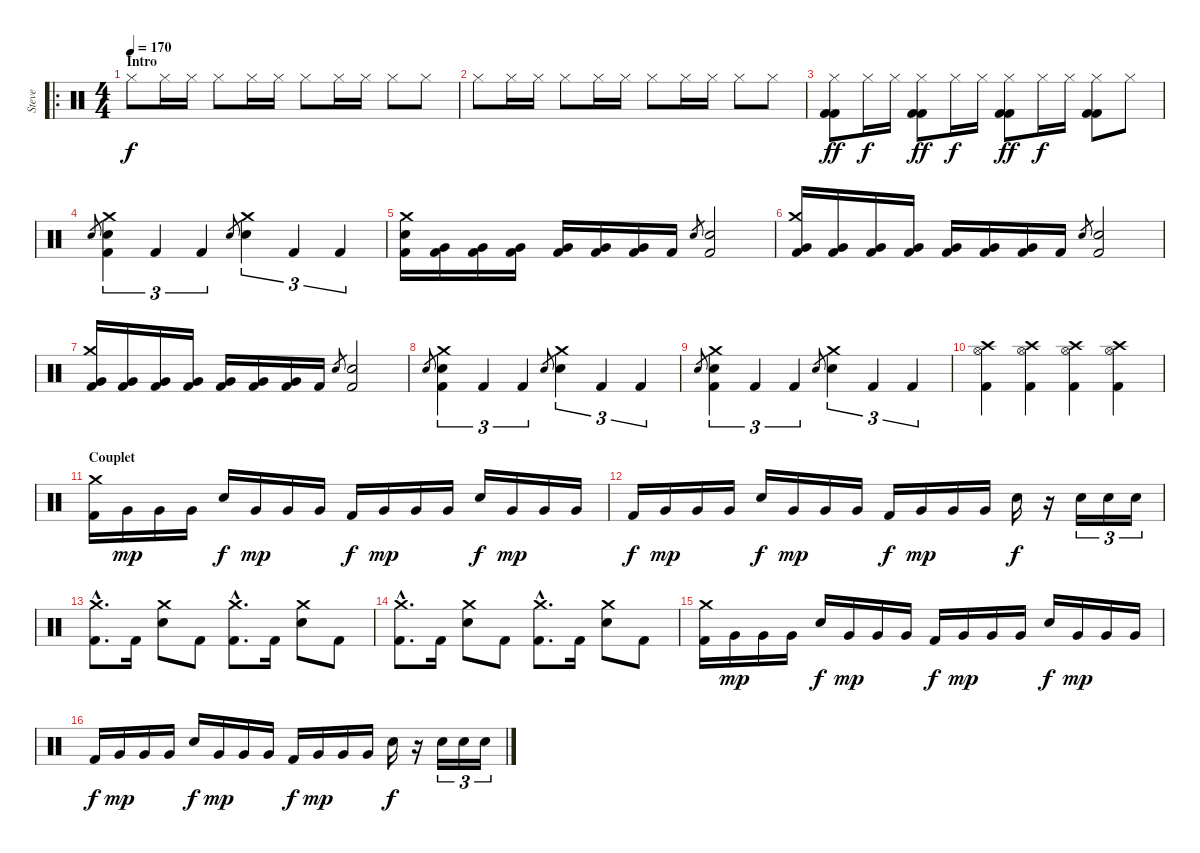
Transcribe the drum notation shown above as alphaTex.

\track ("Steve" "Steve") {instrument percussion}
\staff {score}
\articulation defaults
\ro
\ts (4 4)
\section ("" "Intro")
\tempo 170
\clef neutral
\ks c "Hi-Hat (closed)".8{dy f} "Hi-Hat (closed)".16 "Hi-Hat (closed)".16 "Hi-Hat (closed)".8 "Hi-Hat (closed)".16 "Hi-Hat (closed)".16 "Hi-Hat (closed)".8 "Hi-Hat (closed)".16 "Hi-Hat (closed)".16 "Hi-Hat (closed)".8 "Hi-Hat (closed)".8
|
"Hi-Hat (closed)".8 "Hi-Hat (closed)".16 "Hi-Hat (closed)".16 "Hi-Hat (closed)".8 "Hi-Hat (closed)".16 "Hi-Hat (closed)".16 "Hi-Hat (closed)".8 "Hi-Hat (closed)".16 "Hi-Hat (closed)".16 "Hi-Hat (closed)".8 "Hi-Hat (closed)".8 |
("Hi-Hat (closed)" "Kick (hit) 2" "Kick (hit) 2").8{dy ff} "Hi-Hat (closed)".16{dy f} "Hi-Hat (closed)".16 ("Hi-Hat (closed)" "Kick (hit) 2" "Kick (hit) 2").8{dy ff} "Hi-Hat (closed)".16{dy f} "Hi-Hat (closed)".16 ("Hi-Hat (closed)" "Kick (hit) 2" "Kick (hit) 2").8{dy ff} "Hi-Hat (closed)".16{dy f} "Hi-Hat (closed)".16 ("Hi-Hat (closed)" "Kick (hit) 2" "Kick (hit) 2").8 "Hi-Hat (closed)".8 |
"Electric Snare (hit)".8{gr} ("Crash medium (hit)" "Electric Snare (hit)" "Kick (hit) 2").4{tu (3 2)} "Kick (hit) 2".4{tu (3 2)} "Kick (hit) 2".4{tu (3 2)} "Electric Snare (hit)".8{gr} ("Crash medium (hit)" "Electric Snare (hit)").4{tu (3 2)} "Kick (hit) 2".4{tu (3 2)} "Kick (hit) 2".4{tu (3 2)} |
("Crash medium (hit)" "Electric Snare (hit)" "Kick (hit) 2").16 ("Very Low Tom (hit)" "Kick (hit) 2").16 ("Very Low Tom (hit)" "Kick (hit) 2").16 ("Very Low Tom (hit)" "Kick (hit) 2").16 ("Very Low Tom (hit)" "Kick (hit) 2").16 ("Very Low Tom (hit)" "Kick (hit) 2").16 ("Very Low Tom (hit)" "Kick (hit) 2").16 "Kick (hit) 2".16 "Electric Snare (hit)".8{gr} ("Electric Snare (hit)" "Kick (hit) 2").2 |
("Crash medium (hit)" "Very Low Tom (hit)" "Kick (hit) 2").16 ("Very Low Tom (hit)" "Kick (hit) 2").16 ("Very Low Tom (hit)" "Kick (hit) 2").16 ("Very Low Tom (hit)" "Kick (hit) 2").16 ("Very Low Tom (hit)" "Kick (hit) 2").16 ("Very Low Tom (hit)" "Kick (hit) 2").16 ("Very Low Tom (hit)" "Kick (hit) 2").16 "Kick (hit) 2".16 "Electric Snare (hit)".8{gr} ("Electric Snare (hit)" "Kick (hit) 2").2 |
("Crash medium (hit)" "Very Low Tom (hit)" "Kick (hit) 2").16 ("Very Low Tom (hit)" "Kick (hit) 2").16 ("Very Low Tom (hit)" "Kick (hit) 2").16 ("Very Low Tom (hit)" "Kick (hit) 2").16 ("Very Low Tom (hit)" "Kick (hit) 2").16 ("Very Low Tom (hit)" "Kick (hit) 2").16 ("Very Low Tom (hit)" "Kick (hit) 2").16 "Kick (hit) 2".16 "Electric Snare (hit)".8{gr} ("Electric Snare (hit)" "Kick (hit) 2").2 |
"Electric Snare (hit)".8{gr} ("Crash medium (hit)" "Electric Snare (hit)" "Kick (hit) 2").4{tu (3 2)} "Kick (hit) 2".4{tu (3 2)} "Kick (hit) 2".4{tu (3 2)} "Electric Snare (hit)".8{gr} ("Crash medium (hit)" "Electric Snare (hit)").4{tu (3 2)} "Kick (hit) 2".4{tu (3 2)} "Kick (hit) 2".4{tu (3 2)} |
"Electric Snare (hit)".8{gr} ("Crash medium (hit)" "Electric Snare (hit)" "Kick (hit) 2").4{tu (3 2)} "Kick (hit) 2".4{tu (3 2)} "Kick (hit) 2".4{tu (3 2)} "Electric Snare (hit)".8{gr} ("Crash medium (hit)" "Electric Snare (hit)").4{tu (3 2)} "Kick (hit) 2".4{tu (3 2)} "Kick (hit) 2".4{tu (3 2)} |
("Crash high (hit)" "Hi-Hat (open)" "Kick (hit) 2").4 ("Crash high (hit)" "Hi-Hat (open)" "Kick (hit) 2").4 ("Crash high (hit)" "Hi-Hat (open)" "Kick (hit) 2").4 ("Crash high (hit)" "Hi-Hat (open)" "Kick (hit) 2").4 |
\section ("" "Couplet")
("Crash medium (hit)" "Kick (hit) 2").16 "Very Low Tom (hit)".16{dy mp} "Very Low Tom (hit)".16 "Very Low Tom (hit)".16 "Electric Snare (hit)".16{dy f} "Very Low Tom (hit)".16{dy mp} "Very Low Tom (hit)".16 "Very Low Tom (hit)".16 "Kick (hit) 2".16{dy f} "Very Low Tom (hit)".16{dy mp} "Very Low Tom (hit)".16 "Very Low Tom (hit)".16 "Electric Snare (hit)".16{dy f} "Very Low Tom (hit)".16{dy mp} "Very Low Tom (hit)".16 "Very Low Tom (hit)".16 |
"Kick (hit) 2".16{dy f} "Very Low Tom (hit)".16{dy mp} "Very Low Tom (hit)".16 "Very Low Tom (hit)".16 "Electric Snare (hit)".16{dy f} "Very Low Tom (hit)".16{dy mp} "Very Low Tom (hit)".16 "Very Low Tom (hit)".16 "Kick (hit) 2".16{dy f} "Very Low Tom (hit)".16{dy mp} "Very Low Tom (hit)".16 "Very Low Tom (hit)".16 "Electric Snare (hit)".16{dy f} r.16 "Electric Snare (hit)".16{tu (3 2)} "Electric Snare (hit)".16{tu (3 2)} "Electric Snare (hit)".16{tu (3 2)} |
("Crash medium (hit)"{hac} "Kick (hit) 2"{hac}).8{d} "Kick (hit) 2".16 ("Crash medium (hit)" "Electric Snare (hit)").8 "Kick (hit) 2".8 ("Crash medium (hit)"{hac} "Kick (hit) 2"{hac}).8{d} "Kick (hit) 2".16 ("Crash medium (hit)" "Electric Snare (hit)").8 "Kick (hit) 2".8 |
("Crash medium (hit)"{hac} "Kick (hit) 2"{hac}).8{d} "Kick (hit) 2".16 ("Crash medium (hit)" "Electric Snare (hit)").8 "Kick (hit) 2".8 ("Crash medium (hit)"{hac} "Kick (hit) 2"{hac}).8{d} "Kick (hit) 2".16 ("Crash medium (hit)" "Electric Snare (hit)").8 "Kick (hit) 2".8 |
("Crash medium (hit)" "Kick (hit) 2").16 "Very Low Tom (hit)".16{dy mp} "Very Low Tom (hit)".16 "Very Low Tom (hit)".16 "Electric Snare (hit)".16{dy f} "Very Low Tom (hit)".16{dy mp} "Very Low Tom (hit)".16 "Very Low Tom (hit)".16 "Kick (hit) 2".16{dy f} "Very Low Tom (hit)".16{dy mp} "Very Low Tom (hit)".16 "Very Low Tom (hit)".16 "Electric Snare (hit)".16{dy f} "Very Low Tom (hit)".16{dy mp} "Very Low Tom (hit)".16 "Very Low Tom (hit)".16 |
"Kick (hit) 2".16{dy f} "Very Low Tom (hit)".16{dy mp} "Very Low Tom (hit)".16 "Very Low Tom (hit)".16 "Electric Snare (hit)".16{dy f} "Very Low Tom (hit)".16{dy mp} "Very Low Tom (hit)".16 "Very Low Tom (hit)".16 "Kick (hit) 2".16{dy f} "Very Low Tom (hit)".16{dy mp} "Very Low Tom (hit)".16 "Very Low Tom (hit)".16 "Electric Snare (hit)".16{dy f} r.16 "Electric Snare (hit)".16{tu (3 2)} "Electric Snare (hit)".16{tu (3 2)} "Electric Snare (hit)".16{tu (3 2)}
